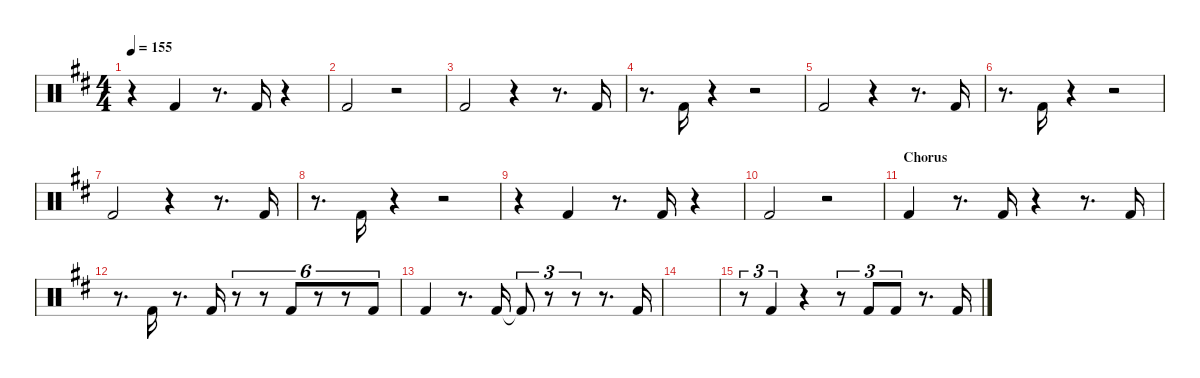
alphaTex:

\hideDynamics
\bracketExtendMode nobrackets
\singleTrackTrackNamePolicy hidden
\multiTrackTrackNamePolicy hidden
\otherSystemsTrackNameOrientation horizontal
\track ("Kick" "Drums") {instrument percussion}
\staff {score}
\articulation defaults
\ts (4 4)
\tempo 155
\clef neutral
\ks d
r.4{dy f beam Down} "Kick (hit) 2"{acc forcenatural}.4{beam Up} r.8{d beam Up} "Kick (hit) 2"{acc forcenatural}.16{dy mf beam Up} r.4{beam Up} |
"Kick (hit) 2"{acc forcenatural}.2{beam Up} r.2{beam Up} |
"Kick (hit) 2"{acc forcenatural}.2{dy f beam Up} r.4{beam Up} r.8{d beam Up} "Kick (hit) 2"{acc forcenatural}.16{dy mf beam Up} |
r.8{d beam Down} "Kick (hit) 2"{acc forcenatural}.16{dy f beam Up} r.4{beam Up} r.2{beam Up} |
"Kick (hit) 2"{acc forcenatural}.2{beam Up} r.4{beam Up} r.8{d beam Up} "Kick (hit) 2"{acc forcenatural}.16{dy mf beam Up} |
r.8{d beam Down} "Kick (hit) 2"{acc forcenatural}.16{dy f beam Up} r.4{beam Up} r.2{beam Up} |
"Kick (hit) 2"{acc forcenatural}.2{beam Up} r.4{beam Up} r.8{d beam Up} "Kick (hit) 2"{acc forcenatural}.16{dy mf beam Up} |
r.8{d beam Down} "Kick (hit) 2"{acc forcenatural}.16{dy f beam Up} r.4{beam Up} r.2{beam Up} |
r.4{beam Down} "Kick (hit) 2"{acc forcenatural}.4{beam Up} r.8{d beam Up} "Kick (hit) 2"{acc forcenatural}.16{dy mf beam Up} r.4{beam Up} |
"Kick (hit) 2"{acc forcenatural}.2{beam Up} r.2{beam Up} |
\section ("" "Chorus")
"Kick (hit) 2"{acc forcenatural}.4{dy f beam Up} r.8{d beam Up} "Kick (hit) 2"{acc forcenatural}.16{dy mp beam Up} r.4{beam Up} r.8{d beam Up} "Kick (hit) 2"{acc forcenatural}.16{dy mf beam Up} |
r.8{d beam Down} "Kick (hit) 2"{acc forcenatural}.16{dy mp beam Up} r.8{d beam Up} "Kick (hit) 2"{acc forcenatural}.16{beam Up} r.8{tu (6 4) beam Up} r.8{tu (6 4) beam Up} "Kick (hit) 2"{acc forcenatural}.8{tu (6 4) beam Up} r.8{tu (6 4) beam Up} r.8{tu (6 4) beam Up} "Kick (hit) 2"{acc forcenatural}.8{tu (6 4) beam Up} |
"Kick (hit) 2"{acc forcenatural}.4{dy f beam Up} r.8{d beam Up} "Kick (hit) 2"{acc forcenatural}.16{dy mf beam Up} "Kick (hit) 2"{t acc forcenatural}.8{tu (3 2) beam Up} r.8{tu (3 2) beam Up} r.8{tu (3 2) beam Up} r.8{d beam Up} "Kick (hit) 2"{acc forcenatural}.16{beam Up} |
|
r.8{tu (3 2) beam Down} "Kick (hit) 2"{acc forcenatural}.4{tu (3 2) beam Up} r.4{beam Up} r.8{tu (3 2) beam Up} "Kick (hit) 2"{acc forcenatural}.8{tu (3 2) dy mp beam Up} "Kick (hit) 2"{acc forcenatural}.8{tu (3 2) beam Up} r.8{d beam Up} "Kick (hit) 2"{acc forcenatural}.16{beam Up}
